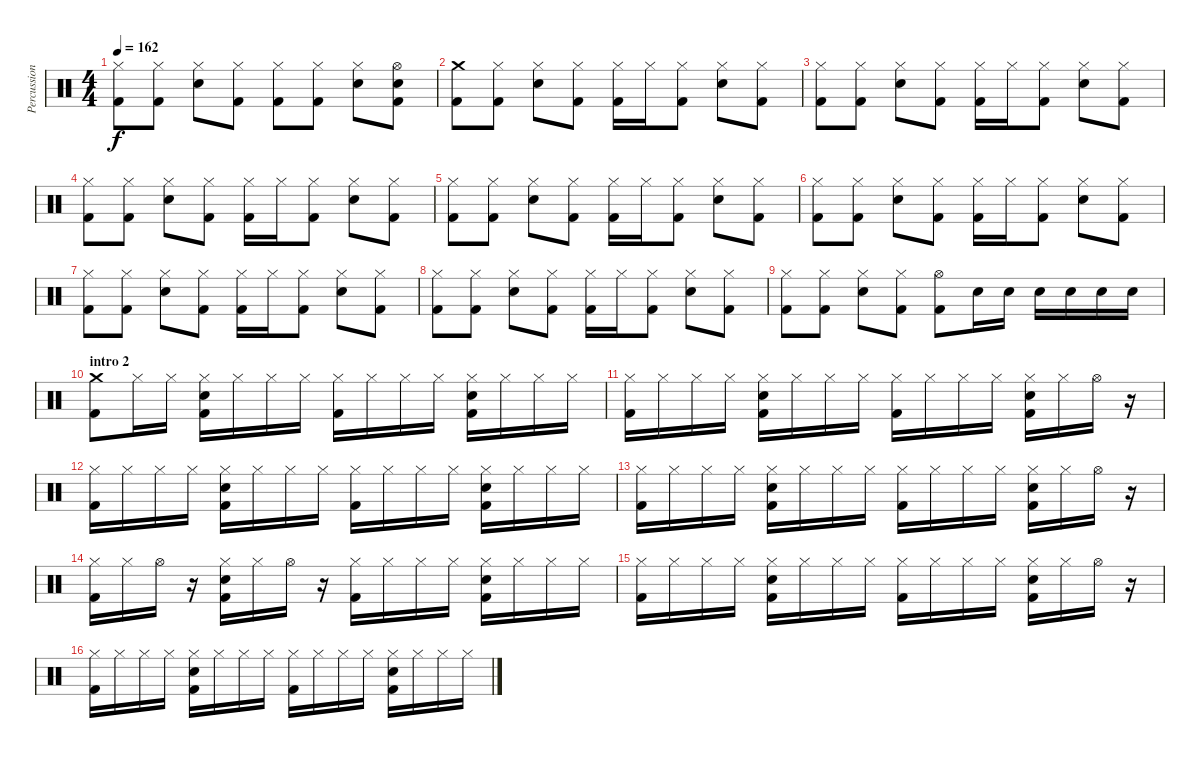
\track ("Percussion" "Percussion") {instrument percussion}
\staff {score}
\articulation defaults
\ts (4 4)
\tempo 162
\clef neutral
\ks c
("Kick (hit) 2" "Hi-Hat (closed)").8{dy f} ("Kick (hit) 2" "Hi-Hat (closed)").8 ("Snare (hit) 2" "Hi-Hat (closed)").8 ("Kick (hit) 2" "Hi-Hat (closed)").8 ("Kick (hit) 2" "Hi-Hat (closed)").8 ("Kick (hit) 2" "Hi-Hat (closed)").8 ("Snare (hit) 2" "Hi-Hat (closed)").8 ("Kick (hit) 2" "Snare (hit) 2" "Hi-Hat (open)").8 |
("Kick (hit) 2" "Crash medium (hit)").8 ("Kick (hit) 2" "Hi-Hat (closed)").8 ("Snare (hit) 2" "Hi-Hat (closed)").8 ("Kick (hit) 2" "Hi-Hat (closed)").8 ("Kick (hit) 2" "Hi-Hat (closed)").16 "Hi-Hat (closed)".16 ("Kick (hit) 2" "Hi-Hat (closed)").8 ("Snare (hit) 2" "Hi-Hat (closed)").8 ("Kick (hit) 2" "Hi-Hat (closed)").8 |
("Kick (hit) 2" "Hi-Hat (closed)").8 ("Kick (hit) 2" "Hi-Hat (closed)").8 ("Snare (hit) 2" "Hi-Hat (closed)").8 ("Kick (hit) 2" "Hi-Hat (closed)").8 ("Kick (hit) 2" "Hi-Hat (closed)").16 "Hi-Hat (closed)".16 ("Kick (hit) 2" "Hi-Hat (closed)").8 ("Snare (hit) 2" "Hi-Hat (closed)").8 ("Kick (hit) 2" "Hi-Hat (closed)").8 |
("Kick (hit) 2" "Hi-Hat (closed)").8 ("Kick (hit) 2" "Hi-Hat (closed)").8 ("Snare (hit) 2" "Hi-Hat (closed)").8 ("Kick (hit) 2" "Hi-Hat (closed)").8 ("Kick (hit) 2" "Hi-Hat (closed)").16 "Hi-Hat (closed)".16 ("Kick (hit) 2" "Hi-Hat (closed)").8 ("Snare (hit) 2" "Hi-Hat (closed)").8 ("Kick (hit) 2" "Hi-Hat (closed)").8 |
("Kick (hit) 2" "Hi-Hat (closed)").8 ("Kick (hit) 2" "Hi-Hat (closed)").8 ("Snare (hit) 2" "Hi-Hat (closed)").8 ("Kick (hit) 2" "Hi-Hat (closed)").8 ("Kick (hit) 2" "Hi-Hat (closed)").16 "Hi-Hat (closed)".16 ("Kick (hit) 2" "Hi-Hat (closed)").8 ("Snare (hit) 2" "Hi-Hat (closed)").8 ("Kick (hit) 2" "Hi-Hat (closed)").8 |
("Kick (hit) 2" "Hi-Hat (closed)").8 ("Kick (hit) 2" "Hi-Hat (closed)").8 ("Snare (hit) 2" "Hi-Hat (closed)").8 ("Kick (hit) 2" "Hi-Hat (closed)").8 ("Kick (hit) 2" "Hi-Hat (closed)").16 "Hi-Hat (closed)".16 ("Kick (hit) 2" "Hi-Hat (closed)").8 ("Snare (hit) 2" "Hi-Hat (closed)").8 ("Kick (hit) 2" "Hi-Hat (closed)").8 |
("Kick (hit) 2" "Hi-Hat (closed)").8 ("Kick (hit) 2" "Hi-Hat (closed)").8 ("Snare (hit) 2" "Hi-Hat (closed)").8 ("Kick (hit) 2" "Hi-Hat (closed)").8 ("Kick (hit) 2" "Hi-Hat (closed)").16 "Hi-Hat (closed)".16 ("Kick (hit) 2" "Hi-Hat (closed)").8 ("Snare (hit) 2" "Hi-Hat (closed)").8 ("Kick (hit) 2" "Hi-Hat (closed)").8 |
("Kick (hit) 2" "Hi-Hat (closed)").8 ("Kick (hit) 2" "Hi-Hat (closed)").8 ("Snare (hit) 2" "Hi-Hat (closed)").8 ("Kick (hit) 2" "Hi-Hat (closed)").8 ("Kick (hit) 2" "Hi-Hat (closed)").16 "Hi-Hat (closed)".16 ("Kick (hit) 2" "Hi-Hat (closed)").8 ("Snare (hit) 2" "Hi-Hat (closed)").8 ("Kick (hit) 2" "Hi-Hat (closed)").8 |
("Kick (hit) 2" "Hi-Hat (closed)").8 ("Kick (hit) 2" "Hi-Hat (closed)").8 ("Snare (hit) 2" "Hi-Hat (closed)").8 ("Kick (hit) 2" "Hi-Hat (closed)").8 ("Kick (hit) 2" "Hi-Hat (open)").8 "Snare (hit) 2".16 "Snare (hit) 2".16 "Snare (hit) 2".16 "Snare (hit) 2".16 "Snare (hit) 2".16 "Snare (hit) 2".16 |
\section ("" "intro 2")
("Kick (hit) 2" "Crash medium (hit)").8 "Hi-Hat (closed)".16 "Hi-Hat (closed)".16 ("Kick (hit) 2" "Snare (hit) 2" "Hi-Hat (closed)").16 "Hi-Hat (closed)".16 "Hi-Hat (closed)".16 "Hi-Hat (closed)".16 ("Kick (hit) 2" "Hi-Hat (closed)").16 "Hi-Hat (closed)".16 "Hi-Hat (closed)".16 "Hi-Hat (closed)".16 ("Kick (hit) 2" "Snare (hit) 2" "Hi-Hat (closed)").16 "Hi-Hat (closed)".16 "Hi-Hat (closed)".16 "Hi-Hat (closed)".16 |
("Kick (hit) 2" "Hi-Hat (closed)").16 "Hi-Hat (closed)".16 "Hi-Hat (closed)".16 "Hi-Hat (closed)".16 ("Kick (hit) 2" "Snare (hit) 2" "Hi-Hat (closed)").16 "Hi-Hat (closed)".16 "Hi-Hat (closed)".16 "Hi-Hat (closed)".16 ("Kick (hit) 2" "Hi-Hat (closed)").16 "Hi-Hat (closed)".16 "Hi-Hat (closed)".16 "Hi-Hat (closed)".16 ("Kick (hit) 2" "Snare (hit) 2" "Hi-Hat (closed)").16 "Hi-Hat (closed)".16 "Hi-Hat (open)".16 r.16 |
("Kick (hit) 2" "Hi-Hat (closed)").16 "Hi-Hat (closed)".16 "Hi-Hat (closed)".16 "Hi-Hat (closed)".16 ("Kick (hit) 2" "Snare (hit) 2" "Hi-Hat (closed)").16 "Hi-Hat (closed)".16 "Hi-Hat (closed)".16 "Hi-Hat (closed)".16 ("Kick (hit) 2" "Hi-Hat (closed)").16 "Hi-Hat (closed)".16 "Hi-Hat (closed)".16 "Hi-Hat (closed)".16 ("Kick (hit) 2" "Snare (hit) 2" "Hi-Hat (closed)").16 "Hi-Hat (closed)".16 "Hi-Hat (closed)".16 "Hi-Hat (closed)".16 |
("Kick (hit) 2" "Hi-Hat (closed)").16 "Hi-Hat (closed)".16 "Hi-Hat (closed)".16 "Hi-Hat (closed)".16 ("Kick (hit) 2" "Snare (hit) 2" "Hi-Hat (closed)").16 "Hi-Hat (closed)".16 "Hi-Hat (closed)".16 "Hi-Hat (closed)".16 ("Kick (hit) 2" "Hi-Hat (closed)").16 "Hi-Hat (closed)".16 "Hi-Hat (closed)".16 "Hi-Hat (closed)".16 ("Kick (hit) 2" "Snare (hit) 2" "Hi-Hat (closed)").16 "Hi-Hat (closed)".16 "Hi-Hat (open)".16 r.16 |
("Kick (hit) 2" "Hi-Hat (closed)").16 "Hi-Hat (closed)".16 "Hi-Hat (open)".16 r.16 ("Kick (hit) 2" "Snare (hit) 2" "Hi-Hat (closed)").16 "Hi-Hat (closed)".16 "Hi-Hat (open)".16 r.16 ("Kick (hit) 2" "Hi-Hat (closed)").16 "Hi-Hat (closed)".16 "Hi-Hat (closed)".16 "Hi-Hat (closed)".16 ("Kick (hit) 2" "Snare (hit) 2" "Hi-Hat (closed)").16 "Hi-Hat (closed)".16 "Hi-Hat (closed)".16 "Hi-Hat (closed)".16 |
("Kick (hit) 2" "Hi-Hat (closed)").16 "Hi-Hat (closed)".16 "Hi-Hat (closed)".16 "Hi-Hat (closed)".16 ("Kick (hit) 2" "Snare (hit) 2" "Hi-Hat (closed)").16 "Hi-Hat (closed)".16 "Hi-Hat (closed)".16 "Hi-Hat (closed)".16 ("Kick (hit) 2" "Hi-Hat (closed)").16 "Hi-Hat (closed)".16 "Hi-Hat (closed)".16 "Hi-Hat (closed)".16 ("Kick (hit) 2" "Snare (hit) 2" "Hi-Hat (closed)").16 "Hi-Hat (closed)".16 "Hi-Hat (open)".16 r.16 |
("Kick (hit) 2" "Hi-Hat (closed)").16 "Hi-Hat (closed)".16 "Hi-Hat (closed)".16 "Hi-Hat (closed)".16 ("Kick (hit) 2" "Snare (hit) 2" "Hi-Hat (closed)").16 "Hi-Hat (closed)".16 "Hi-Hat (closed)".16 "Hi-Hat (closed)".16 ("Kick (hit) 2" "Hi-Hat (closed)").16 "Hi-Hat (closed)".16 "Hi-Hat (closed)".16 "Hi-Hat (closed)".16 ("Kick (hit) 2" "Snare (hit) 2" "Hi-Hat (closed)").16 "Hi-Hat (closed)".16 "Hi-Hat (closed)".16 "Hi-Hat (closed)".16
